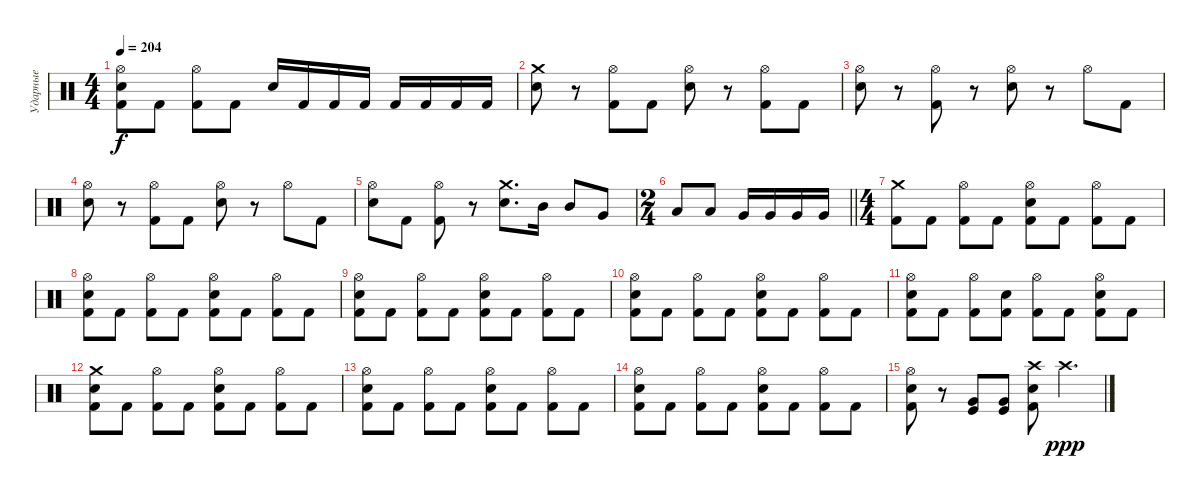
\track ("Ударные" "Ударные") {instrument percussion}
\staff {score}
\articulation defaults
\ts (4 4)
\tempo 204
\clef neutral
\ks c
("Hi-Hat (open)" "Snare (hit) 2" "Kick (hit) 2").8{dy f} "Kick (hit) 2".8 ("Hi-Hat (open)" "Kick (hit) 2").8 "Kick (hit) 2".8 "Snare (hit) 2".16 "Kick (hit) 2".16 "Kick (hit) 2".16 "Kick (hit) 2".16 "Kick (hit) 2".16 "Kick (hit) 2".16 "Kick (hit) 2".16 "Kick (hit) 2".16 |
("Crash medium (hit)" "Snare (hit) 2").8 r.8 ("Hi-Hat (open)" "Kick (hit) 2").8 "Kick (hit) 2".8 ("Hi-Hat (open)" "Snare (hit) 2").8 r.8 ("Hi-Hat (open)" "Kick (hit) 2").8 "Kick (hit) 2".8 |
("Hi-Hat (open)" "Snare (hit) 2").8 r.8 ("Hi-Hat (open)" "Kick (hit) 2").8 r.8 ("Hi-Hat (open)" "Snare (hit) 2").8 r.8 "Hi-Hat (open)".8 "Kick (hit) 2".8 |
("Hi-Hat (open)" "Snare (hit) 2").8 r.8 ("Hi-Hat (open)" "Kick (hit) 2").8 "Kick (hit) 2".8 ("Hi-Hat (open)" "Snare (hit) 2").8 r.8 "Hi-Hat (open)".8 "Kick (hit) 2".8 |
("Hi-Hat (open)" "Snare (hit) 2").8 "Kick (hit) 2".8 ("Hi-Hat (open)" "Kick (hit) 2").8 r.8 ("Crash medium (hit)" "Snare (hit) 2").8{d} "Mid Tom (hit)".16 "Mid Tom (hit)".8 "Very Low Tom (hit)".8 |
\ts (2 4)
\barLineRight lightlight "Low Tom (hit)".8 "Low Tom (hit)".8 "Very Low Tom (hit)".16 "Very Low Tom (hit)".16 "Very Low Tom (hit)".16 "Very Low Tom (hit)".16
|
\ts (4 4)
("Crash medium (hit)" "Kick (hit) 2").8 "Kick (hit) 2".8 ("Hi-Hat (open)" "Kick (hit) 2").8 "Kick (hit) 2".8 ("Hi-Hat (open)" "Snare (hit) 2" "Kick (hit) 2").8 "Kick (hit) 2".8 ("Hi-Hat (open)" "Kick (hit) 2").8 "Kick (hit) 2".8 |
("Hi-Hat (open)" "Snare (hit) 2" "Kick (hit) 2").8 "Kick (hit) 2".8 ("Hi-Hat (open)" "Kick (hit) 2").8 "Kick (hit) 2".8 ("Hi-Hat (open)" "Snare (hit) 2" "Kick (hit) 2").8 "Kick (hit) 2".8 ("Hi-Hat (open)" "Kick (hit) 2").8 "Kick (hit) 2".8 |
("Hi-Hat (open)" "Snare (hit) 2" "Kick (hit) 2").8 "Kick (hit) 2".8 ("Hi-Hat (open)" "Kick (hit) 2").8 "Kick (hit) 2".8 ("Hi-Hat (open)" "Snare (hit) 2" "Kick (hit) 2").8 "Kick (hit) 2".8 ("Hi-Hat (open)" "Kick (hit) 2").8 "Kick (hit) 2".8 |
("Hi-Hat (open)" "Snare (hit) 2" "Kick (hit) 2").8 "Kick (hit) 2".8 ("Hi-Hat (open)" "Kick (hit) 2").8 "Kick (hit) 2".8 ("Hi-Hat (open)" "Snare (hit) 2" "Kick (hit) 2").8 "Kick (hit) 2".8 ("Hi-Hat (open)" "Kick (hit) 2").8 "Kick (hit) 2".8 |
("Hi-Hat (open)" "Snare (hit) 2" "Kick (hit) 2").8 "Kick (hit) 2".8 ("Hi-Hat (open)" "Kick (hit) 2").8 ("Snare (hit) 2" "Kick (hit) 2").8 ("Hi-Hat (open)" "Kick (hit) 2").8 "Kick (hit) 2".8 ("Hi-Hat (open)" "Snare (hit) 2" "Kick (hit) 2").8 "Kick (hit) 2".8 |
("Crash medium (hit)" "Snare (hit) 2" "Kick (hit) 2").8 "Kick (hit) 2".8 ("Hi-Hat (open)" "Kick (hit) 2").8 "Kick (hit) 2".8 ("Hi-Hat (open)" "Snare (hit) 2" "Kick (hit) 2").8 "Kick (hit) 2".8 ("Hi-Hat (open)" "Kick (hit) 2").8 "Kick (hit) 2".8 |
("Hi-Hat (open)" "Snare (hit) 2" "Kick (hit) 2").8 "Kick (hit) 2".8 ("Hi-Hat (open)" "Kick (hit) 2").8 "Kick (hit) 2".8 ("Hi-Hat (open)" "Snare (hit) 2" "Kick (hit) 2").8 "Kick (hit) 2".8 ("Hi-Hat (open)" "Kick (hit) 2").8 "Kick (hit) 2".8 |
("Hi-Hat (open)" "Snare (hit) 2" "Kick (hit) 2").8 "Kick (hit) 2".8 ("Hi-Hat (open)" "Kick (hit) 2").8 "Kick (hit) 2".8 ("Hi-Hat (open)" "Snare (hit) 2" "Kick (hit) 2").8 "Kick (hit) 2".8 ("Hi-Hat (open)" "Kick (hit) 2").8 "Kick (hit) 2".8 |
("Hi-Hat (open)" "Snare (hit) 2" "Kick (hit) 2").8 r.8 ("Kick (hit)" "Very Low Tom (hit)").8 ("Kick (hit)" "Very Low Tom (hit)").8 ("Crash high (hit)" "Snare (hit) 2" "Kick (hit) 2").8 "Crash high (hit)".4{d dy ppp}
